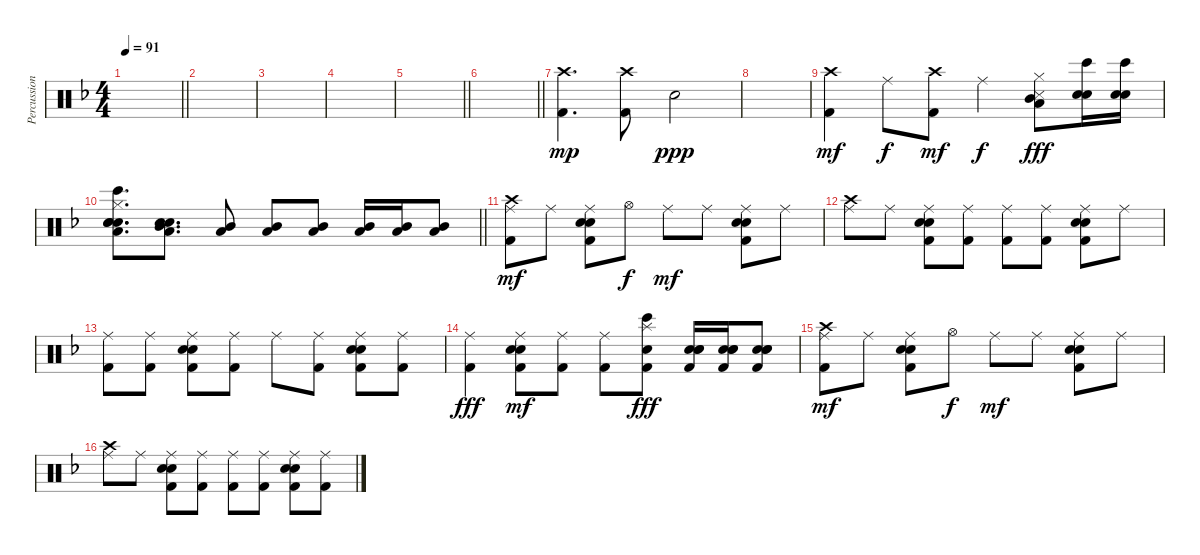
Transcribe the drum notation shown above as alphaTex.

\track ("Percussion" "Percussion") {instrument percussion}
\staff {score}
\articulation defaults
\ts (4 4)
\tempo 91
\clef neutral
\barLineRight lightlight
\ks f
|
|
|
|
\barLineRight lightlight
|
\barLineRight lightlight
|
("Crash high (hit)" "Kick (hit) 2").4{d dy mp} ("Crash high (hit)" "Kick (hit) 2").8 "Snare (hit)".2{dy ppp} |
|
("Kick (hit) 2" "Crash high (hit)").4{dy mf} "Ride (middle)".8{dy f} ("Kick (hit) 2" "Crash high (hit)").8{dy mf} "Ride (middle)".4{dy f} ("Mid Tom (hit)" "Snare (side stick) 3" "Low Floor Tom (hit)" "Hi-Hat (closed)").8{dy fff} ("Snare (hit) 2" "Hand Clap (hit)" "Bongo High (hit)").16 ("Snare (hit) 2" "Hand Clap (hit)" "Bongo High (hit)").16 |
\barLineRight lightlight
("Low Floor Tom (hit)" "Electric Snare (hit)" "Snare (hit) 2" "Hand Clap (hit)" "Bongo High (hit)" "Hi-Hat (closed)").8{d} ("Electric Snare (hit)" "Low Floor Tom (hit)" "Snare (hit) 2" "Mid Tom (hit)").8{d} ("Low Floor Tom (hit)" "Mid Tom (hit)").8 ("Low Floor Tom (hit)" "Mid Tom (hit)").8 ("Low Floor Tom (hit)" "Mid Tom (hit)").8 ("Low Floor Tom (hit)" "Mid Tom (hit)").16 ("Low Floor Tom (hit)" "Mid Tom (hit)").16 ("Low Floor Tom (hit)" "Mid Tom (hit)").8 |
("Kick (hit) 2" "Crash high (hit)" "Ride (middle)").8{dy mf} "Ride (middle)".8 ("Kick (hit) 2" "Snare (hit) 2" "Electric Snare (hit)" "Ride (middle)").8 "Hi-Hat (open)".8{dy f} "Ride (middle)".8{dy mf} "Ride (middle)".8 ("Electric Snare (hit)" "Snare (hit) 2" "Kick (hit) 2" "Ride (middle)").8 "Ride (middle)".8 |
("Crash high (hit)" "Ride (middle)").8 "Ride (middle)".8 ("Kick (hit) 2" "Snare (hit) 2" "Electric Snare (hit)" "Ride (middle)").8 ("Kick (hit) 2" "Ride (middle)").8 ("Kick (hit) 2" "Ride (middle)").8 ("Kick (hit) 2" "Ride (middle)").8 ("Electric Snare (hit)" "Kick (hit) 2" "Snare (hit) 2" "Ride (middle)").8 "Ride (middle)".8 |
("Kick (hit) 2" "Ride (middle)").8 ("Kick (hit) 2" "Ride (middle)").8 ("Electric Snare (hit)" "Kick (hit) 2" "Snare (hit) 2" "Ride (middle)").8 ("Kick (hit) 2" "Ride (middle)").8 "Ride (middle)".8 ("Kick (hit) 2" "Ride (middle)").8 ("Electric Snare (hit)" "Kick (hit) 2" "Snare (hit) 2" "Ride (middle)").8 ("Kick (hit) 2" "Ride (middle)").8 |
("Ride (middle)" "Kick (hit) 2").4{dy fff} ("Electric Snare (hit)" "Kick (hit) 2" "Snare (hit) 2" "Ride (middle)").8{dy mf} ("Kick (hit) 2" "Ride (middle)").8 ("Kick (hit) 2" "Ride (middle)").8 ("Bongo High (hit)" "Kick (hit) 2" "Snare (hit) 2" "Splash (hit)").8{dy fff} ("Kick (hit) 2" "Snare (hit) 2" "Electric Snare (hit)" "Hand Clap (hit)").16 ("Kick (hit) 2" "Snare (hit) 2" "Electric Snare (hit)" "Hand Clap (hit)").16 ("Kick (hit) 2" "Snare (hit) 2" "Electric Snare (hit)" "Hand Clap (hit)").8 |
("Kick (hit) 2" "Crash high (hit)" "Ride (middle)").8{dy mf} "Ride (middle)".8 ("Kick (hit) 2" "Snare (hit) 2" "Electric Snare (hit)" "Ride (middle)").8 "Hi-Hat (open)".8{dy f} "Ride (middle)".8{dy mf} "Ride (middle)".8 ("Electric Snare (hit)" "Snare (hit) 2" "Kick (hit) 2" "Ride (middle)").8 "Ride (middle)".8 |
("Crash high (hit)" "Ride (middle)").8 "Ride (middle)".8 ("Electric Snare (hit)" "Kick (hit) 2" "Snare (hit) 2" "Ride (middle)").8 ("Kick (hit) 2" "Ride (middle)").8 ("Kick (hit) 2" "Ride (middle)").8 ("Kick (hit) 2" "Ride (middle)").8 ("Electric Snare (hit)" "Kick (hit) 2" "Snare (hit) 2" "Ride (middle)").8 ("Kick (hit) 2" "Ride (middle)").8
